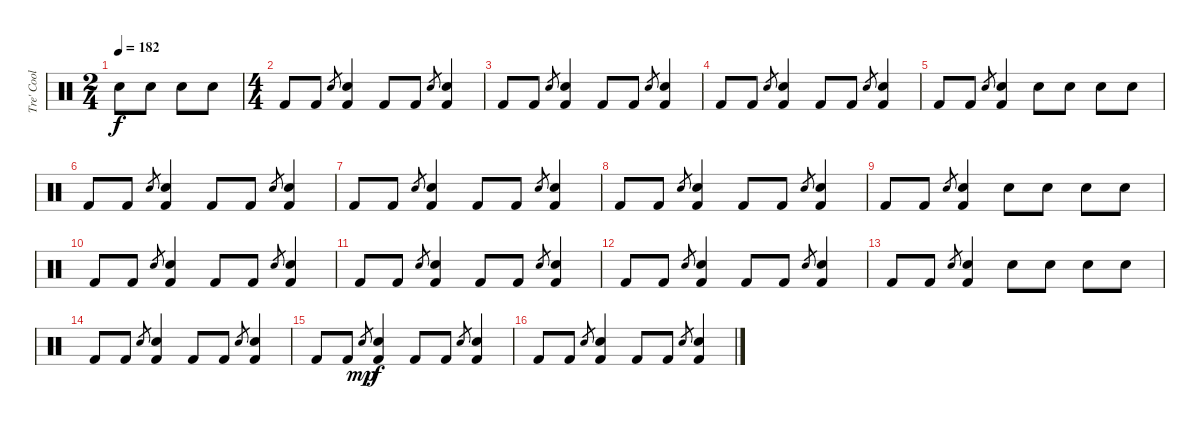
\track ("Tre' Cool (DRUMS)!!!!!!!!!" "Tre' Cool ") {instrument percussion}
\staff {score}
\articulation defaults
\ts (2 4)
\tempo 182
\clef neutral
\ks c "Snare (hit) 2".8{dy f} "Snare (hit) 2".8 "Snare (hit) 2".8 "Snare (hit) 2".8
|
\ts (4 4)
"Kick (hit) 2".8 "Kick (hit) 2".8 "Snare (hit) 2".8{gr} ("Snare (hit) 2" "Kick (hit) 2").4 "Kick (hit) 2".8 "Kick (hit) 2".8 "Snare (hit) 2".8{gr} ("Snare (hit) 2" "Kick (hit) 2").4 |
"Kick (hit) 2".8 "Kick (hit) 2".8 "Snare (hit) 2".8{gr} ("Snare (hit) 2" "Kick (hit) 2").4 "Kick (hit) 2".8 "Kick (hit) 2".8 "Snare (hit) 2".8{gr} ("Snare (hit) 2" "Kick (hit) 2").4 |
"Kick (hit) 2".8 "Kick (hit) 2".8 "Snare (hit) 2".8{gr} ("Snare (hit) 2" "Kick (hit) 2").4 "Kick (hit) 2".8 "Kick (hit) 2".8 "Snare (hit) 2".8{gr} ("Snare (hit) 2" "Kick (hit) 2").4 |
"Kick (hit) 2".8 "Kick (hit) 2".8 "Snare (hit) 2".8{gr} ("Snare (hit) 2" "Kick (hit) 2").4 "Snare (hit) 2".8 "Snare (hit) 2".8 "Snare (hit) 2".8 "Snare (hit) 2".8 |
"Kick (hit) 2".8 "Kick (hit) 2".8 "Snare (hit) 2".8{gr} ("Snare (hit) 2" "Kick (hit) 2").4 "Kick (hit) 2".8 "Kick (hit) 2".8 "Snare (hit) 2".8{gr} ("Snare (hit) 2" "Kick (hit) 2").4 |
"Kick (hit) 2".8 "Kick (hit) 2".8 "Snare (hit) 2".8{gr} ("Snare (hit) 2" "Kick (hit) 2").4 "Kick (hit) 2".8 "Kick (hit) 2".8 "Snare (hit) 2".8{gr} ("Snare (hit) 2" "Kick (hit) 2").4 |
"Kick (hit) 2".8 "Kick (hit) 2".8 "Snare (hit) 2".8{gr} ("Snare (hit) 2" "Kick (hit) 2").4 "Kick (hit) 2".8 "Kick (hit) 2".8 "Snare (hit) 2".8{gr} ("Snare (hit) 2" "Kick (hit) 2").4 |
"Kick (hit) 2".8 "Kick (hit) 2".8 "Snare (hit) 2".8{gr} ("Snare (hit) 2" "Kick (hit) 2").4 "Snare (hit) 2".8 "Snare (hit) 2".8 "Snare (hit) 2".8 "Snare (hit) 2".8 |
"Kick (hit) 2".8 "Kick (hit) 2".8 "Snare (hit) 2".8{gr} ("Snare (hit) 2" "Kick (hit) 2").4 "Kick (hit) 2".8 "Kick (hit) 2".8 "Snare (hit) 2".8{gr} ("Snare (hit) 2" "Kick (hit) 2").4 |
"Kick (hit) 2".8 "Kick (hit) 2".8 "Snare (hit) 2".8{gr} ("Snare (hit) 2" "Kick (hit) 2").4 "Kick (hit) 2".8 "Kick (hit) 2".8 "Snare (hit) 2".8{gr} ("Snare (hit) 2" "Kick (hit) 2").4 |
"Kick (hit) 2".8 "Kick (hit) 2".8 "Snare (hit) 2".8{gr} ("Snare (hit) 2" "Kick (hit) 2").4 "Kick (hit) 2".8 "Kick (hit) 2".8 "Snare (hit) 2".8{gr} ("Snare (hit) 2" "Kick (hit) 2").4 |
"Kick (hit) 2".8 "Kick (hit) 2".8 "Snare (hit) 2".8{gr} ("Snare (hit) 2" "Kick (hit) 2").4 "Snare (hit) 2".8 "Snare (hit) 2".8 "Snare (hit) 2".8 "Snare (hit) 2".8 |
"Kick (hit) 2".8 "Kick (hit) 2".8 "Snare (hit) 2".8{gr} ("Snare (hit) 2" "Kick (hit) 2").4 "Kick (hit) 2".8 "Kick (hit) 2".8 "Snare (hit) 2".8{gr} ("Snare (hit) 2" "Kick (hit) 2").4 |
"Kick (hit) 2".8 "Kick (hit) 2".8 "Snare (hit) 2".8{gr dy mp} ("Snare (hit) 2" "Kick (hit) 2").4{dy f} "Kick (hit) 2".8 "Kick (hit) 2".8 "Snare (hit) 2".8{gr} ("Snare (hit) 2" "Kick (hit) 2").4 |
"Kick (hit) 2".8 "Kick (hit) 2".8 "Snare (hit) 2".8{gr} ("Snare (hit) 2" "Kick (hit) 2").4 "Kick (hit) 2".8 "Kick (hit) 2".8 "Snare (hit) 2".8{gr} ("Snare (hit) 2" "Kick (hit) 2").4
